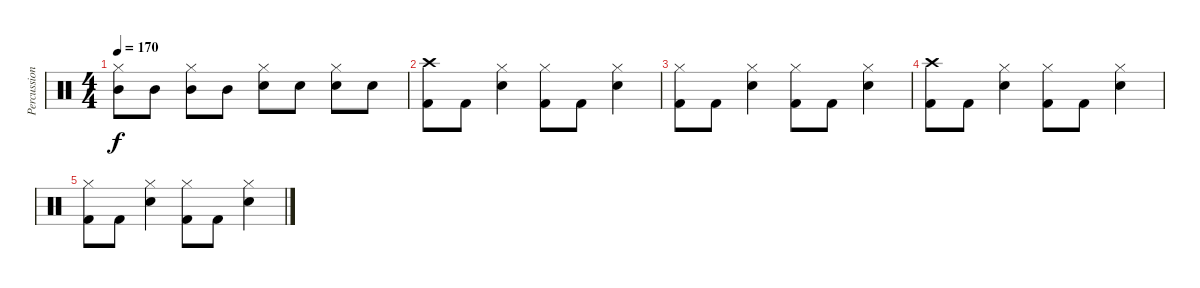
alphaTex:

\track ("Percussion" "Percussion") {instrument percussion}
\staff {score}
\articulation defaults
\ts (4 4)
\tempo 170
\clef neutral
\ks c
("Hi-Hat (closed)" "Mid Tom (hit)").8{dy f} "Mid Tom (hit)".8 ("Hi-Hat (closed)" "Mid Tom (hit)").8 "Mid Tom (hit)".8 ("Hi-Hat (closed)" "Electric Snare (hit)").8 "Electric Snare (hit)".8 ("Hi-Hat (closed)" "Electric Snare (hit)").8 "Electric Snare (hit)".8 |
("Crash high (hit)" "Kick (hit) 2").8{volume 4} "Kick (hit) 2".8 ("Hi-Hat (closed)" "Electric Snare (hit)").4 ("Hi-Hat (closed)" "Kick (hit) 2").8 "Kick (hit) 2".8 ("Hi-Hat (closed)" "Electric Snare (hit)").4 |
("Hi-Hat (closed)" "Kick (hit) 2").8 "Kick (hit) 2".8 ("Hi-Hat (closed)" "Electric Snare (hit)").4 ("Hi-Hat (closed)" "Kick (hit) 2").8 "Kick (hit) 2".8 ("Hi-Hat (closed)" "Electric Snare (hit)").4 |
("Crash high (hit)" "Kick (hit) 2").8{volume 0} "Kick (hit) 2".8 ("Hi-Hat (closed)" "Electric Snare (hit)").4 ("Hi-Hat (closed)" "Kick (hit) 2").8 "Kick (hit) 2".8 ("Hi-Hat (closed)" "Electric Snare (hit)").4 |
("Hi-Hat (closed)" "Kick (hit) 2").8 "Kick (hit) 2".8 ("Hi-Hat (closed)" "Electric Snare (hit)").4 ("Hi-Hat (closed)" "Kick (hit) 2").8 "Kick (hit) 2".8 ("Hi-Hat (closed)" "Electric Snare (hit)").4
